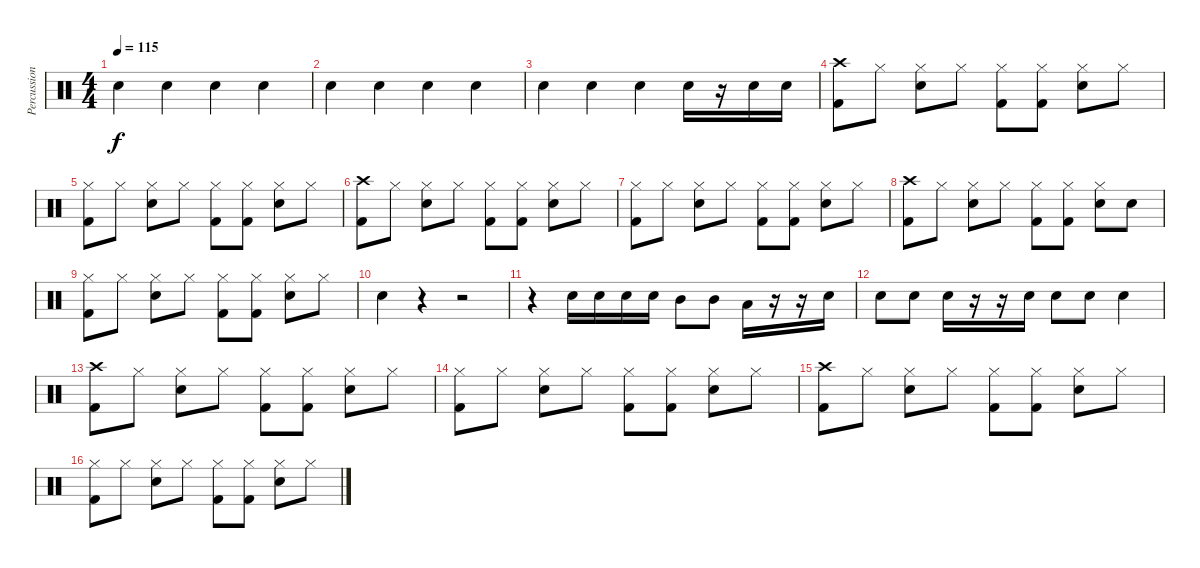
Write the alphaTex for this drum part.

\track ("Percussions" "Percussion") {instrument percussion}
\staff {score}
\articulation defaults
\ts (4 4)
\tempo 115
\clef neutral
\ks c "Snare (hit) 2".4{dy f} "Snare (hit) 2".4 "Snare (hit) 2".4 "Snare (hit) 2".4
|
"Snare (hit) 2".4 "Snare (hit) 2".4 "Snare (hit) 2".4 "Snare (hit) 2".4 |
"Snare (hit) 2".4 "Snare (hit) 2".4 "Snare (hit) 2".4 "Snare (hit) 2".16 r.16 "Snare (hit) 2".16 "Snare (hit) 2".16 |
("Crash high (hit)" "Kick (hit) 2").8 "Hi-Hat (closed)".8 ("Hi-Hat (closed)" "Snare (hit) 2").8 "Hi-Hat (closed)".8 ("Hi-Hat (closed)" "Kick (hit) 2").8 ("Hi-Hat (closed)" "Kick (hit) 2").8 ("Hi-Hat (closed)" "Snare (hit) 2").8 "Hi-Hat (closed)".8 |
("Hi-Hat (closed)" "Kick (hit) 2").8 "Hi-Hat (closed)".8 ("Hi-Hat (closed)" "Snare (hit) 2").8 "Hi-Hat (closed)".8 ("Hi-Hat (closed)" "Kick (hit) 2").8 ("Hi-Hat (closed)" "Kick (hit) 2").8 ("Hi-Hat (closed)" "Snare (hit) 2").8 "Hi-Hat (closed)".8 |
("Crash high (hit)" "Kick (hit) 2").8 "Hi-Hat (closed)".8 ("Hi-Hat (closed)" "Snare (hit) 2").8 "Hi-Hat (closed)".8 ("Hi-Hat (closed)" "Kick (hit) 2").8 ("Hi-Hat (closed)" "Kick (hit) 2").8 ("Hi-Hat (closed)" "Snare (hit) 2").8 "Hi-Hat (closed)".8 |
("Hi-Hat (closed)" "Kick (hit) 2").8 "Hi-Hat (closed)".8 ("Hi-Hat (closed)" "Snare (hit) 2").8 "Hi-Hat (closed)".8 ("Hi-Hat (closed)" "Kick (hit) 2").8 ("Hi-Hat (closed)" "Kick (hit) 2").8 ("Hi-Hat (closed)" "Snare (hit) 2").8 "Hi-Hat (closed)".8 |
("Crash high (hit)" "Kick (hit) 2").8 "Hi-Hat (closed)".8 ("Hi-Hat (closed)" "Snare (hit) 2").8 "Hi-Hat (closed)".8 ("Hi-Hat (closed)" "Kick (hit) 2").8 ("Hi-Hat (closed)" "Kick (hit) 2").8 ("Hi-Hat (closed)" "Snare (hit) 2").8 "Snare (hit)".8 |
("Hi-Hat (closed)" "Kick (hit) 2").8 "Hi-Hat (closed)".8 ("Hi-Hat (closed)" "Snare (hit) 2").8 "Hi-Hat (closed)".8 ("Hi-Hat (closed)" "Kick (hit) 2").8 ("Hi-Hat (closed)" "Kick (hit) 2").8 ("Hi-Hat (closed)" "Snare (hit) 2").8 "Hi-Hat (closed)".8 |
"Snare (hit) 2".4 r.4 r.2 |
r.4 "Snare (hit) 2".16 "Snare (hit) 2".16 "Snare (hit) 2".16 "Snare (hit) 2".16 "Mid Tom (hit)".8 "Mid Tom (hit)".8 "Low Tom (hit)".16 r.16 r.16 "Snare (hit) 2".16 |
"Snare (hit) 2".8 "Snare (hit) 2".8 "Snare (hit) 2".16 r.16 r.16 "Snare (hit) 2".16 "Snare (hit) 2".8 "Snare (hit) 2".8 "Snare (hit) 2".4 |
("Crash high (hit)" "Kick (hit) 2").8 "Hi-Hat (closed)".8 ("Hi-Hat (closed)" "Snare (hit) 2").8 "Hi-Hat (closed)".8 ("Hi-Hat (closed)" "Kick (hit) 2").8 ("Hi-Hat (closed)" "Kick (hit) 2").8 ("Hi-Hat (closed)" "Snare (hit) 2").8 "Hi-Hat (closed)".8 |
("Hi-Hat (closed)" "Kick (hit) 2").8 "Hi-Hat (closed)".8 ("Hi-Hat (closed)" "Snare (hit) 2").8 "Hi-Hat (closed)".8 ("Hi-Hat (closed)" "Kick (hit) 2").8 ("Hi-Hat (closed)" "Kick (hit) 2").8 ("Hi-Hat (closed)" "Snare (hit) 2").8 "Hi-Hat (closed)".8 |
("Crash high (hit)" "Kick (hit) 2").8 "Hi-Hat (closed)".8 ("Hi-Hat (closed)" "Snare (hit) 2").8 "Hi-Hat (closed)".8 ("Hi-Hat (closed)" "Kick (hit) 2").8 ("Hi-Hat (closed)" "Kick (hit) 2").8 ("Hi-Hat (closed)" "Snare (hit) 2").8 "Hi-Hat (closed)".8 |
("Hi-Hat (closed)" "Kick (hit) 2").8 "Hi-Hat (closed)".8 ("Hi-Hat (closed)" "Snare (hit) 2").8 "Hi-Hat (closed)".8 ("Hi-Hat (closed)" "Kick (hit) 2").8 ("Hi-Hat (closed)" "Kick (hit) 2").8 ("Hi-Hat (closed)" "Snare (hit) 2").8 "Hi-Hat (closed)".8
